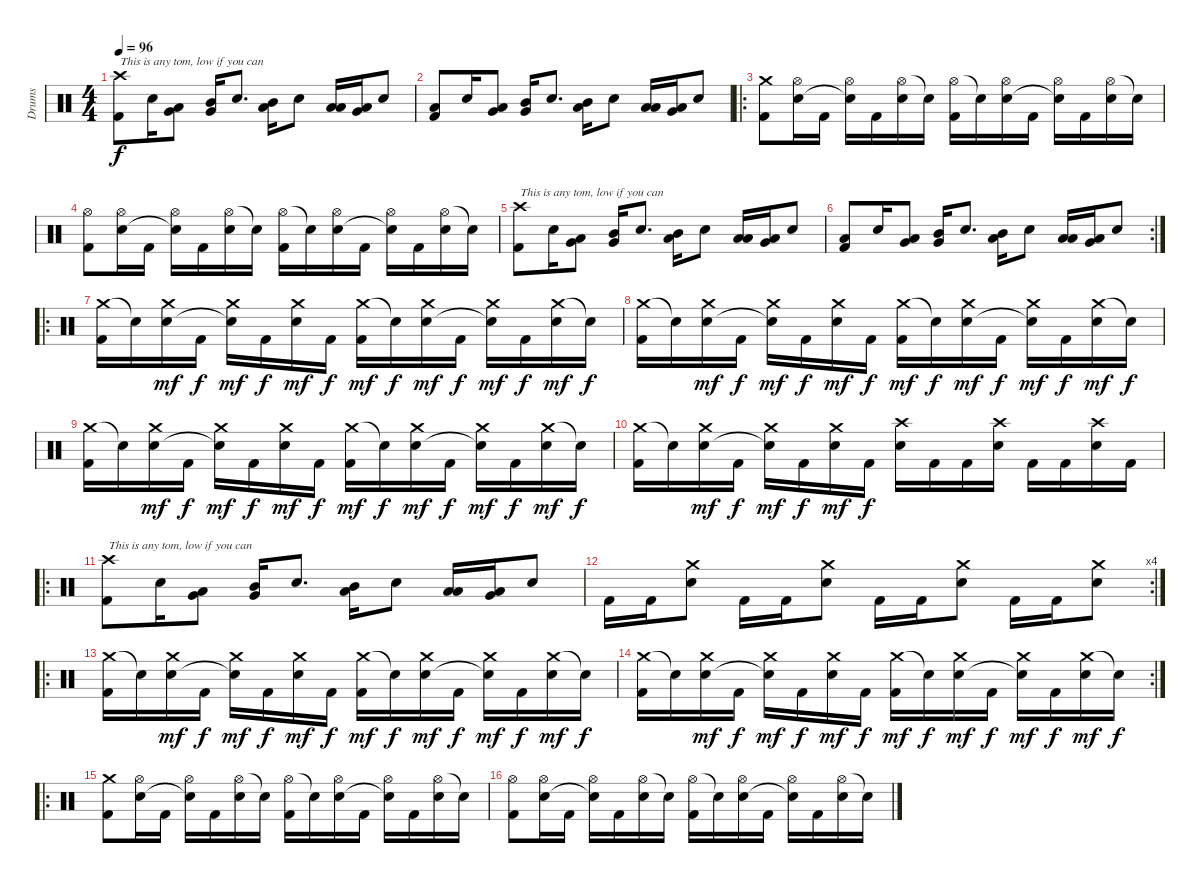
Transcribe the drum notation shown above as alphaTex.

\track ("Drums" "Drums") {instrument percussion}
\staff {score}
\articulation defaults
\ts (4 4)
\tempo 96
\clef neutral
\ks c
("Crash high (hit)" "Kick (hit) 2").8{txt "This is any tom, low if you can" dy f} "Electric Snare (hit)".16 ("Low Tom (hit)" "Very Low Tom (hit)").8 ("Very Low Tom (hit)" "Mid Tom (hit)").16 "Electric Snare (hit)".8{d} ("Low Tom (hit)" "Mid Tom (hit)").16 "Electric Snare (hit)".8 ("Low Tom (hit)" "Low Tom (hit)").16 ("Very Low Tom (hit)" "Low Tom (hit)").16 "Electric Snare (hit)".8 |
("Low Tom (hit)" "Kick (hit) 2").8 "Electric Snare (hit)".16 ("Low Tom (hit)" "Very Low Tom (hit)").8 ("Very Low Tom (hit)" "Mid Tom (hit)").16 "Electric Snare (hit)".8{d} ("Low Tom (hit)" "Mid Tom (hit)").16 "Electric Snare (hit)".8 ("Low Tom (hit)" "Low Tom (hit)").16 ("Low Tom (hit)" "Very Low Tom (hit)").16 "Electric Snare (hit)".8 |
\ro
("Crash medium (hit)" "Kick (hit) 2").8 ("Hi-Hat (open)" "Electric Snare (hit)").16 "Kick (hit) 2".16 ("Hi-Hat (open)" "Snare (hit)"{t}).16 "Kick (hit) 2".16 ("Hi-Hat (open)" "Electric Snare (hit)").16 "Snare (hit)"{t}.16 ("Hi-Hat (open)" "Kick (hit) 2").16 "Snare (hit)"{t}.16 ("Hi-Hat (open)" "Electric Snare (hit)").16 "Kick (hit) 2".16 ("Hi-Hat (open)" "Snare (hit)"{t}).16 "Kick (hit) 2".16 ("Hi-Hat (open)" "Electric Snare (hit)").16 "Snare (hit)"{t}.16 |
("Hi-Hat (open)" "Kick (hit) 2").8 ("Hi-Hat (open)" "Electric Snare (hit)").16 "Kick (hit) 2".16 ("Hi-Hat (open)" "Snare (hit)"{t}).16 "Kick (hit) 2".16 ("Hi-Hat (open)" "Electric Snare (hit)").16 "Snare (hit)"{t}.16 ("Hi-Hat (open)" "Kick (hit) 2").16 "Snare (hit)"{t}.16 ("Hi-Hat (open)" "Electric Snare (hit)").16 "Kick (hit) 2".16 ("Hi-Hat (open)" "Snare (hit)"{t}).16 "Kick (hit) 2".16 ("Hi-Hat (open)" "Electric Snare (hit)").16 "Snare (hit)"{t}.16 |
("Crash high (hit)" "Kick (hit) 2").8{txt "This is any tom, low if you can"} "Electric Snare (hit)".16 ("Low Tom (hit)" "Very Low Tom (hit)").8 ("Very Low Tom (hit)" "Mid Tom (hit)").16 "Electric Snare (hit)".8{d} ("Low Tom (hit)" "Mid Tom (hit)").16 "Electric Snare (hit)".8 ("Low Tom (hit)" "Low Tom (hit)").16 ("Very Low Tom (hit)" "Low Tom (hit)").16 "Electric Snare (hit)".8 |
\rc 2
("Low Tom (hit)" "Kick (hit) 2").8 "Electric Snare (hit)".16 ("Low Tom (hit)" "Very Low Tom (hit)").8 ("Very Low Tom (hit)" "Mid Tom (hit)").16 "Electric Snare (hit)".8{d} ("Low Tom (hit)" "Mid Tom (hit)").16 "Electric Snare (hit)".8 ("Low Tom (hit)" "Low Tom (hit)").16 ("Low Tom (hit)" "Very Low Tom (hit)").16 "Electric Snare (hit)".8 |
\ro
("Crash medium (hit)" "Kick (hit) 2").16 "Snare (hit)"{t}.16 ("Crash medium (hit)" "Electric Snare (hit)").16{dy mf} "Kick (hit) 2".16{dy f} ("Crash medium (hit)" "Snare (hit)"{t}).16{dy mf} "Kick (hit) 2".16{dy f} ("Crash medium (hit)" "Electric Snare (hit)").16{dy mf} "Kick (hit) 2".16{dy f} ("Crash medium (hit)" "Kick (hit) 2").16{dy mf} "Snare (hit)"{t}.16{dy f} ("Crash medium (hit)" "Electric Snare (hit)").16{dy mf} "Kick (hit) 2".16{dy f} ("Crash medium (hit)" "Snare (hit)"{t}).16{dy mf} "Kick (hit) 2".16{dy f} ("Crash medium (hit)" "Electric Snare (hit)").16{dy mf} "Snare (hit)"{t}.16{dy f} |
("Crash medium (hit)" "Kick (hit) 2").16 "Snare (hit)"{t}.16 ("Crash medium (hit)" "Electric Snare (hit)").16{dy mf} "Kick (hit) 2".16{dy f} ("Crash medium (hit)" "Snare (hit)"{t}).16{dy mf} "Kick (hit) 2".16{dy f} ("Crash medium (hit)" "Electric Snare (hit)").16{dy mf} "Kick (hit) 2".16{dy f} ("Crash medium (hit)" "Kick (hit) 2").16{dy mf} "Snare (hit)"{t}.16{dy f} ("Crash medium (hit)" "Electric Snare (hit)").16{dy mf} "Kick (hit) 2".16{dy f} ("Crash medium (hit)" "Snare (hit)"{t}).16{dy mf} "Kick (hit) 2".16{dy f} ("Crash medium (hit)" "Electric Snare (hit)").16{dy mf} "Snare (hit)"{t}.16{dy f} |
("Crash medium (hit)" "Kick (hit) 2").16 "Snare (hit)"{t}.16 ("Crash medium (hit)" "Electric Snare (hit)").16{dy mf} "Kick (hit) 2".16{dy f} ("Crash medium (hit)" "Snare (hit)"{t}).16{dy mf} "Kick (hit) 2".16{dy f} ("Crash medium (hit)" "Electric Snare (hit)").16{dy mf} "Kick (hit) 2".16{dy f} ("Crash medium (hit)" "Kick (hit) 2").16{dy mf} "Snare (hit)"{t}.16{dy f} ("Crash medium (hit)" "Electric Snare (hit)").16{dy mf} "Kick (hit) 2".16{dy f} ("Crash medium (hit)" "Snare (hit)"{t}).16{dy mf} "Kick (hit) 2".16{dy f} ("Crash medium (hit)" "Electric Snare (hit)").16{dy mf} "Snare (hit)"{t}.16{dy f} |
("Crash medium (hit)" "Kick (hit) 2").16 "Snare (hit)"{t}.16 ("Crash medium (hit)" "Electric Snare (hit)").16{dy mf} "Kick (hit) 2".16{dy f} ("Crash medium (hit)" "Snare (hit)"{t}).16{dy mf} "Kick (hit) 2".16{dy f} ("Crash medium (hit)" "Electric Snare (hit)").16{dy mf} "Kick (hit) 2".16{dy f} ("Crash high (hit)" "Snare (hit) 2").16 "Kick (hit) 2".16 "Kick (hit) 2".16 ("Crash high (hit)" "Snare (hit) 2").16 "Kick (hit) 2".16 "Kick (hit) 2".16 ("Crash high (hit)" "Snare (hit) 2").16 "Kick (hit) 2".16 |
\ro
("Crash high (hit)" "Kick (hit) 2").8{txt "This is any tom, low if you can"} "Electric Snare (hit)".16 ("Low Tom (hit)" "Very Low Tom (hit)").8 ("Very Low Tom (hit)" "Mid Tom (hit)").16 "Electric Snare (hit)".8{d} ("Low Tom (hit)" "Mid Tom (hit)").16 "Electric Snare (hit)".8 ("Low Tom (hit)" "Low Tom (hit)").16 ("Very Low Tom (hit)" "Low Tom (hit)").16 "Electric Snare (hit)".8 |
\rc 4 "Kick (hit) 2".16 "Kick (hit) 2".16
("Crash medium (hit)" "Electric Snare (hit)").8 "Kick (hit) 2".16 "Kick (hit) 2".16 ("Crash medium (hit)" "Electric Snare (hit)").8 "Kick (hit) 2".16 "Kick (hit) 2".16 ("Crash medium (hit)" "Electric Snare (hit)").8 "Kick (hit) 2".16 "Kick (hit) 2".16 ("Crash medium (hit)" "Electric Snare (hit)").8 |
\ro
("Crash medium (hit)" "Kick (hit) 2").16 "Snare (hit)"{t}.16 ("Crash medium (hit)" "Electric Snare (hit)").16{dy mf} "Kick (hit) 2".16{dy f} ("Crash medium (hit)" "Snare (hit)"{t}).16{dy mf} "Kick (hit) 2".16{dy f} ("Crash medium (hit)" "Electric Snare (hit)").16{dy mf} "Kick (hit) 2".16{dy f} ("Crash medium (hit)" "Kick (hit) 2").16{dy mf} "Snare (hit)"{t}.16{dy f} ("Crash medium (hit)" "Electric Snare (hit)").16{dy mf} "Kick (hit) 2".16{dy f} ("Crash medium (hit)" "Snare (hit)"{t}).16{dy mf} "Kick (hit) 2".16{dy f} ("Crash medium (hit)" "Electric Snare (hit)").16{dy mf} "Snare (hit)"{t}.16{dy f} |
\rc 2
("Crash medium (hit)" "Kick (hit) 2").16 "Snare (hit)"{t}.16 ("Crash medium (hit)" "Electric Snare (hit)").16{dy mf} "Kick (hit) 2".16{dy f} ("Crash medium (hit)" "Snare (hit)"{t}).16{dy mf} "Kick (hit) 2".16{dy f} ("Crash medium (hit)" "Electric Snare (hit)").16{dy mf} "Kick (hit) 2".16{dy f} ("Crash medium (hit)" "Kick (hit) 2").16{dy mf} "Snare (hit)"{t}.16{dy f} ("Crash medium (hit)" "Electric Snare (hit)").16{dy mf} "Kick (hit) 2".16{dy f} ("Crash medium (hit)" "Snare (hit)"{t}).16{dy mf} "Kick (hit) 2".16{dy f} ("Crash medium (hit)" "Electric Snare (hit)").16{dy mf} "Snare (hit)"{t}.16{dy f} |
\ro
("Crash medium (hit)" "Kick (hit) 2").8 ("Hi-Hat (open)" "Electric Snare (hit)").16 "Kick (hit) 2".16 ("Hi-Hat (open)" "Snare (hit)"{t}).16 "Kick (hit) 2".16 ("Hi-Hat (open)" "Electric Snare (hit)").16 "Snare (hit)"{t}.16 ("Hi-Hat (open)" "Kick (hit) 2").16 "Snare (hit)"{t}.16 ("Hi-Hat (open)" "Electric Snare (hit)").16 "Kick (hit) 2".16 ("Hi-Hat (open)" "Snare (hit)"{t}).16 "Kick (hit) 2".16 ("Hi-Hat (open)" "Electric Snare (hit)").16 "Snare (hit)"{t}.16 |
("Hi-Hat (open)" "Kick (hit) 2").8 ("Hi-Hat (open)" "Electric Snare (hit)").16 "Kick (hit) 2".16 ("Hi-Hat (open)" "Snare (hit)"{t}).16 "Kick (hit) 2".16 ("Hi-Hat (open)" "Electric Snare (hit)").16 "Snare (hit)"{t}.16 ("Hi-Hat (open)" "Kick (hit) 2").16 "Snare (hit)"{t}.16 ("Hi-Hat (open)" "Electric Snare (hit)").16 "Kick (hit) 2".16 ("Hi-Hat (open)" "Snare (hit)"{t}).16 "Kick (hit) 2".16 ("Hi-Hat (open)" "Electric Snare (hit)").16 "Snare (hit)"{t}.16
